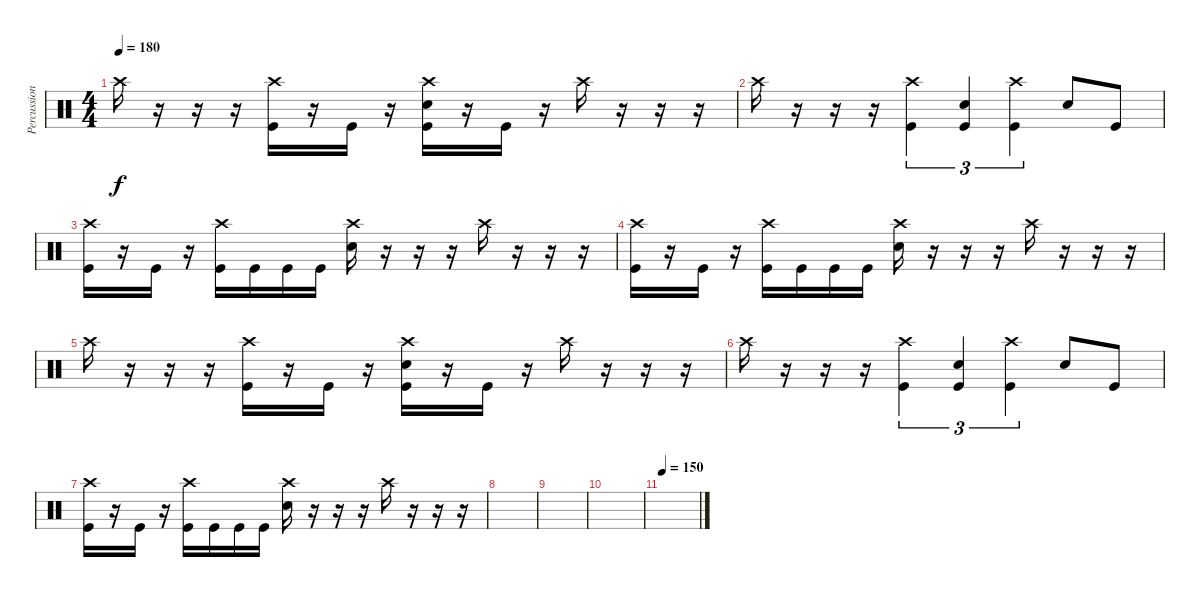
\track ("Percussion" "Percussion") {instrument percussion}
\staff {score}
\articulation defaults
\ts (4 4)
\tempo 180
\clef neutral
\ks c "Crash high (hit)".16{dy f}
r.16 r.16 r.16 ("Crash high (hit)" "Kick (hit)").16 r.16 "Kick (hit)".16 r.16 ("Crash high (hit)" "Electric Snare (hit)" "Kick (hit)").16 r.16 "Kick (hit)".16 r.16 "Crash high (hit)".16 r.16 r.16 r.16 |
"Crash high (hit)".16 r.16 r.16 r.16 ("Crash high (hit)" "Kick (hit)").4{tu (3 2)} ("Electric Snare (hit)" "Kick (hit)").4{tu (3 2)} ("Crash high (hit)" "Kick (hit)").4{tu (3 2)} "Electric Snare (hit)".8 "Kick (hit)".8 |
("Crash high (hit)" "Kick (hit)").16 r.16 "Kick (hit)".16 r.16 ("Crash high (hit)" "Kick (hit)").16 "Kick (hit)".16 "Kick (hit)".16 "Kick (hit)".16 ("Crash high (hit)" "Electric Snare (hit)").16 r.16 r.16 r.16 "Crash high (hit)".16 r.16 r.16 r.16 |
("Crash high (hit)" "Kick (hit)").16 r.16 "Kick (hit)".16 r.16 ("Crash high (hit)" "Kick (hit)").16 "Kick (hit)".16 "Kick (hit)".16 "Kick (hit)".16 ("Crash high (hit)" "Electric Snare (hit)").16 r.16 r.16 r.16 "Crash high (hit)".16 r.16 r.16 r.16 |
"Crash high (hit)".16 r.16 r.16 r.16 ("Crash high (hit)" "Kick (hit)").16 r.16 "Kick (hit)".16 r.16 ("Crash high (hit)" "Electric Snare (hit)" "Kick (hit)").16 r.16 "Kick (hit)".16 r.16 "Crash high (hit)".16 r.16 r.16 r.16 |
"Crash high (hit)".16 r.16 r.16 r.16 ("Crash high (hit)" "Kick (hit)").4{tu (3 2)} ("Electric Snare (hit)" "Kick (hit)").4{tu (3 2)} ("Crash high (hit)" "Kick (hit)").4{tu (3 2)} "Electric Snare (hit)".8 "Kick (hit)".8 |
("Crash high (hit)" "Kick (hit)").16 r.16 "Kick (hit)".16 r.16 ("Crash high (hit)" "Kick (hit)").16 "Kick (hit)".16 "Kick (hit)".16 "Kick (hit)".16 ("Crash high (hit)" "Electric Snare (hit)").16 r.16 r.16 r.16 "Crash high (hit)".16 r.16 r.16 r.16 |
|
|
|
\tempo 150
